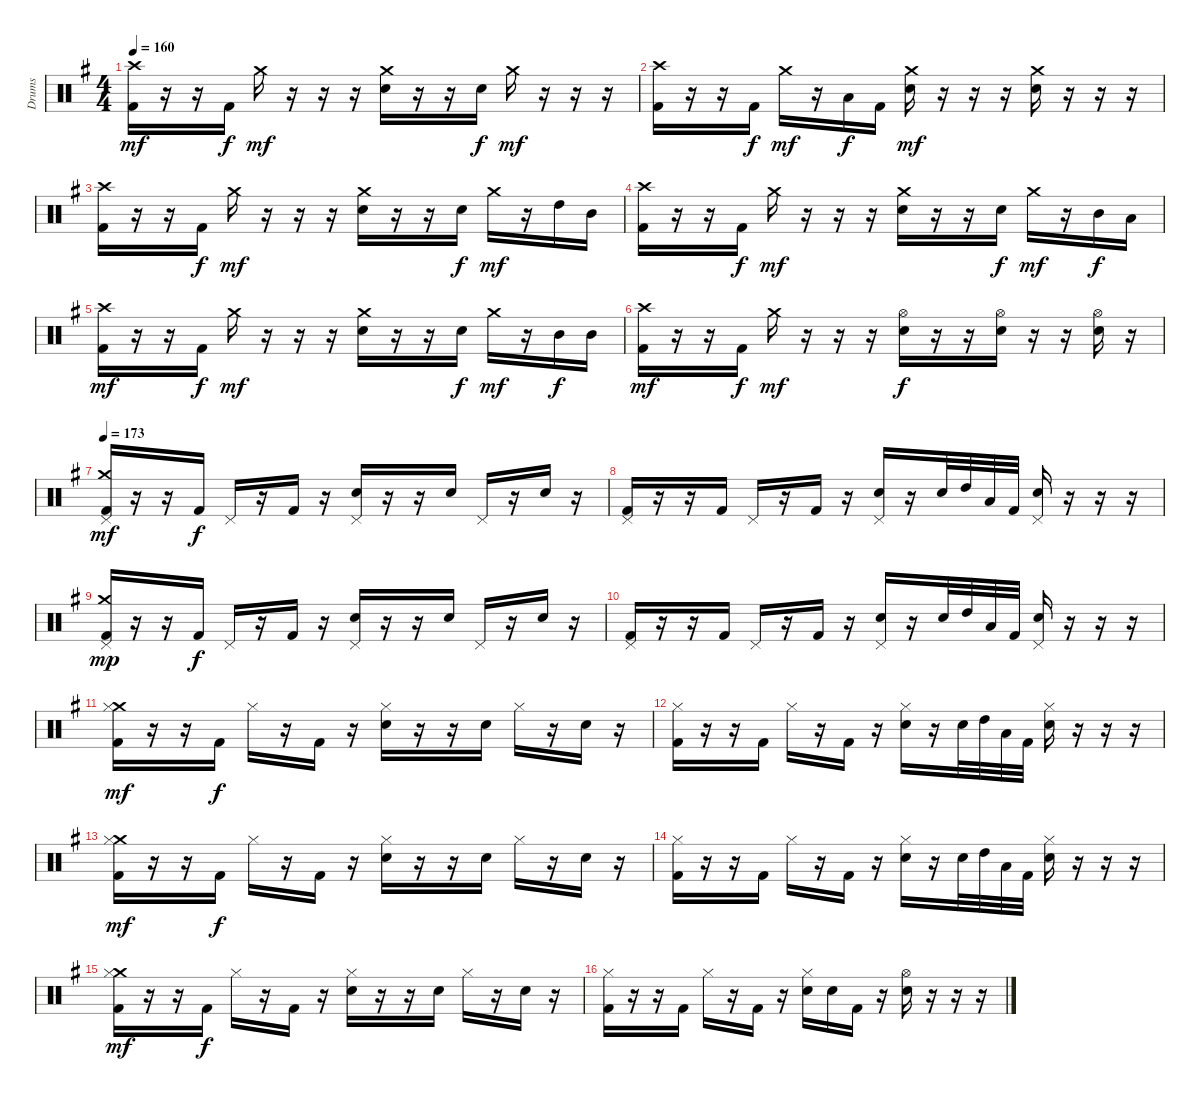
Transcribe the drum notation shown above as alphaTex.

\track ("Drums" "Drums") {instrument percussion}
\staff {score}
\articulation defaults
\ts (4 4)
\tempo 160
\clef neutral
\ks g
("Crash high (hit)" "Kick (hit) 2").16{dy mf} r.16 r.16 "Kick (hit) 2".16{dy f} "Crash medium (hit)".16{dy mf} r.16 r.16 r.16 ("Crash medium (hit)" "Snare (hit) 2").16 r.16 r.16 "Snare (hit) 2".16{dy f} "Crash medium (hit)".16{dy mf} r.16 r.16 r.16 |
("Crash high (hit)" "Kick (hit) 2").16 r.16 r.16 "Kick (hit) 2".16{dy f} "Crash medium (hit)".16{dy mf} r.16 "Low Tom (hit)".16{dy f} "Kick (hit) 2".16 ("Crash medium (hit)" "Snare (hit) 2").16{dy mf} r.16 r.16 r.16 ("Crash medium (hit)" "Snare (hit) 2").16 r.16 r.16 r.16 |
("Crash high (hit)" "Kick (hit) 2").16 r.16 r.16 "Kick (hit) 2".16{dy f} "Crash medium (hit)".16{dy mf} r.16 r.16 r.16 ("Crash medium (hit)" "Snare (hit) 2").16 r.16 r.16 "Snare (hit) 2".16{dy f} "Crash medium (hit)".16{dy mf} r.16 "High Tom (hit)".16 "Mid Tom (hit)".16 |
("Crash high (hit)" "Kick (hit) 2").16 r.16 r.16 "Kick (hit) 2".16{dy f} "Crash medium (hit)".16{dy mf} r.16 r.16 r.16 ("Crash medium (hit)" "Snare (hit) 2").16 r.16 r.16 "Snare (hit) 2".16{dy f} "Crash medium (hit)".16{dy mf} r.16 "Mid Tom (hit)".16{dy f} "Low Tom (hit)".16 |
("Crash high (hit)" "Kick (hit) 2").16{dy mf} r.16 r.16 "Kick (hit) 2".16{dy f} "Crash medium (hit)".16{dy mf} r.16 r.16 r.16 ("Crash medium (hit)" "Snare (hit) 2").16 r.16 r.16 "Snare (hit) 2".16{dy f} "Crash medium (hit)".16{dy mf} r.16 "Mid Tom (hit)".16{dy f} "Mid Tom (hit)".16 |
("Crash high (hit)" "Kick (hit) 2").16{dy mf} r.16 r.16 "Kick (hit) 2".16{dy f} "Crash medium (hit)".16{dy mf} r.16 r.16 r.16 ("Hi-Hat (open)" "Snare (hit) 2").16{dy f} r.16 r.16 ("Hi-Hat (open)" "Snare (hit) 2").16 r.16 r.16 ("Hi-Hat (open)" "Snare (hit) 2").16 r.16 |
\tempo 173
("Crash medium (hit)" "Pedal Hi-Hat (hit)" "Kick (hit) 2").16{dy mf} r.16 r.16 "Kick (hit) 2".16{dy f} "Pedal Hi-Hat (hit)".16 r.16 "Kick (hit) 2".16 r.16 ("Pedal Hi-Hat (hit)" "Snare (hit) 2").16 r.16 r.16 "Snare (hit) 2".16 "Pedal Hi-Hat (hit)".16 r.16 "Snare (hit) 2".16 r.16 |
("Pedal Hi-Hat (hit)" "Kick (hit) 2").16 r.16 r.16 "Kick (hit) 2".16 "Pedal Hi-Hat (hit)".16 r.16 "Kick (hit) 2".16 r.16 ("Pedal Hi-Hat (hit)" "Snare (hit) 2").16 r.16 "Snare (hit) 2".32 "High Tom (hit)".32 "Low Tom (hit)".32 "Kick (hit) 2".32 ("Pedal Hi-Hat (hit)" "Snare (hit) 2").16 r.16 r.16 r.16 |
("Crash medium (hit)" "Pedal Hi-Hat (hit)" "Kick (hit) 2").16{dy mp} r.16 r.16 "Kick (hit) 2".16{dy f} "Pedal Hi-Hat (hit)".16 r.16 "Kick (hit) 2".16 r.16 ("Pedal Hi-Hat (hit)" "Snare (hit) 2").16 r.16 r.16 "Snare (hit) 2".16 "Pedal Hi-Hat (hit)".16 r.16 "Snare (hit) 2".16 r.16 |
("Pedal Hi-Hat (hit)" "Kick (hit) 2").16 r.16 r.16 "Kick (hit) 2".16 "Pedal Hi-Hat (hit)".16 r.16 "Kick (hit) 2".16 r.16 ("Pedal Hi-Hat (hit)" "Snare (hit) 2").16 r.16 "Snare (hit) 2".32 "High Tom (hit)".32 "Low Tom (hit)".32 "Kick (hit) 2".32 ("Pedal Hi-Hat (hit)" "Snare (hit) 2").16 r.16 r.16 r.16 |
("Crash medium (hit)" "Hi-Hat (closed)" "Kick (hit) 2").16{dy mf} r.16 r.16 "Kick (hit) 2".16{dy f} "Hi-Hat (closed)".16 r.16 "Kick (hit) 2".16 r.16 ("Hi-Hat (closed)" "Snare (hit) 2").16 r.16 r.16 "Snare (hit) 2".16 "Hi-Hat (closed)".16 r.16 "Snare (hit) 2".16 r.16 |
("Hi-Hat (closed)" "Kick (hit) 2").16 r.16 r.16 "Kick (hit) 2".16 "Hi-Hat (closed)".16 r.16 "Kick (hit) 2".16 r.16 ("Hi-Hat (closed)" "Snare (hit) 2").16 r.16 "Snare (hit) 2".32 "High Tom (hit)".32 "Low Tom (hit)".32 "Kick (hit) 2".32 ("Hi-Hat (closed)" "Snare (hit) 2").16 r.16 r.16 r.16 |
("Crash medium (hit)" "Hi-Hat (closed)" "Kick (hit) 2").16{dy mf} r.16 r.16 "Kick (hit) 2".16{dy f} "Hi-Hat (closed)".16 r.16 "Kick (hit) 2".16 r.16 ("Hi-Hat (closed)" "Snare (hit) 2").16 r.16 r.16 "Snare (hit) 2".16 "Hi-Hat (closed)".16 r.16 "Snare (hit) 2".16 r.16 |
("Hi-Hat (closed)" "Kick (hit) 2").16 r.16 r.16 "Kick (hit) 2".16 "Hi-Hat (closed)".16 r.16 "Kick (hit) 2".16 r.16 ("Hi-Hat (closed)" "Snare (hit) 2").16 r.16 "Snare (hit) 2".32 "High Tom (hit)".32 "Low Tom (hit)".32 "Kick (hit) 2".32 ("Hi-Hat (closed)" "Snare (hit) 2").16 r.16 r.16 r.16 |
("Crash medium (hit)" "Hi-Hat (closed)" "Kick (hit) 2").16{dy mf} r.16 r.16 "Kick (hit) 2".16{dy f} "Hi-Hat (closed)".16 r.16 "Kick (hit) 2".16 r.16 ("Hi-Hat (closed)" "Snare (hit) 2").16 r.16 r.16 "Snare (hit) 2".16 "Hi-Hat (closed)".16 r.16 "Snare (hit) 2".16 r.16 |
("Hi-Hat (closed)" "Kick (hit) 2").16 r.16 r.16 "Kick (hit) 2".16 "Hi-Hat (closed)".16 r.16 "Kick (hit) 2".16 r.16 ("Hi-Hat (closed)" "Snare (hit) 2").16 "Snare (hit) 2".16 "Kick (hit) 2".16 r.16 ("Hi-Hat (open)" "Snare (hit) 2").16 r.16 r.16 r.16
